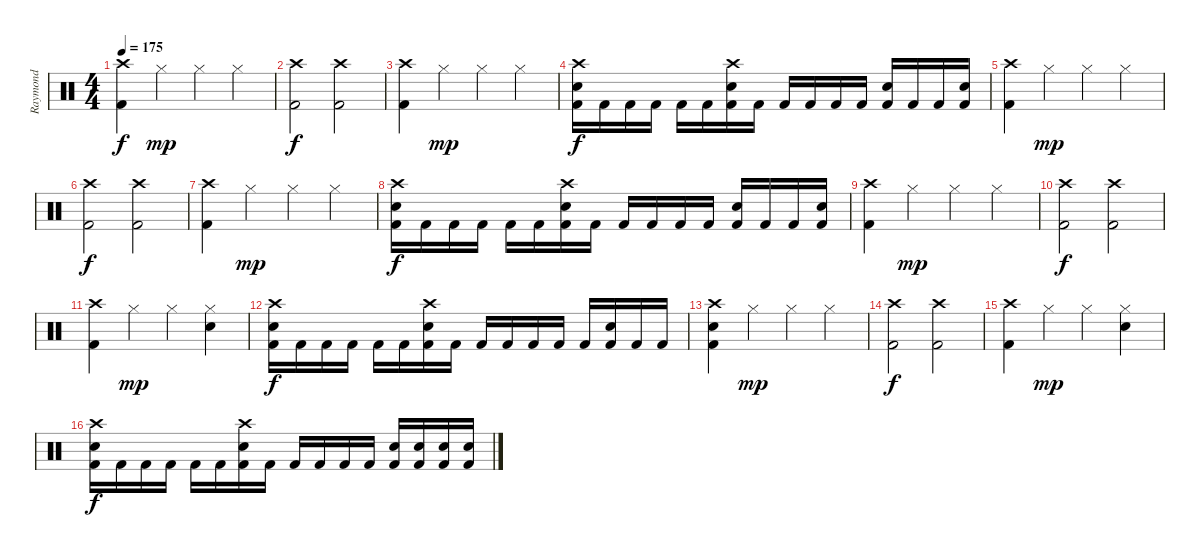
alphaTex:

\track ("Raymond" "Raymond") {instrument percussion}
\staff {score}
\articulation defaults
\ts (4 4)
\tempo 175
\clef neutral
\ks c
("Crash high (hit)" "Kick (hit) 2").4{dy f} "Hi-Hat (closed)".4{dy mp} "Hi-Hat (closed)".4 "Hi-Hat (closed)".4 |
("Crash high (hit)" "Kick (hit) 2").2{dy f} ("Crash high (hit)" "Kick (hit) 2").2 |
("Crash high (hit)" "Kick (hit) 2").4 "Hi-Hat (closed)".4{dy mp} "Hi-Hat (closed)".4 "Hi-Hat (closed)".4 |
("Crash high (hit)" "Electric Snare (hit)" "Kick (hit) 2").16{dy f} "Kick (hit) 2".16 "Kick (hit) 2".16 "Kick (hit) 2".16 "Kick (hit) 2".16 "Kick (hit) 2".16 ("Crash high (hit)" "Electric Snare (hit)" "Kick (hit) 2").16 "Kick (hit) 2".16 "Kick (hit) 2".16 "Kick (hit) 2".16 "Kick (hit) 2".16 "Kick (hit) 2".16 ("Electric Snare (hit)" "Kick (hit) 2").16 "Kick (hit) 2".16 "Kick (hit) 2".16 ("Electric Snare (hit)" "Kick (hit) 2").16 |
("Crash high (hit)" "Kick (hit) 2").4 "Hi-Hat (closed)".4{dy mp} "Hi-Hat (closed)".4 "Hi-Hat (closed)".4 |
("Crash high (hit)" "Kick (hit) 2").2{dy f} ("Crash high (hit)" "Kick (hit) 2").2 |
("Crash high (hit)" "Kick (hit) 2").4 "Hi-Hat (closed)".4{dy mp} "Hi-Hat (closed)".4 "Hi-Hat (closed)".4 |
("Crash high (hit)" "Electric Snare (hit)" "Kick (hit) 2").16{dy f} "Kick (hit) 2".16 "Kick (hit) 2".16 "Kick (hit) 2".16 "Kick (hit) 2".16 "Kick (hit) 2".16 ("Crash high (hit)" "Electric Snare (hit)" "Kick (hit) 2").16 "Kick (hit) 2".16 "Kick (hit) 2".16 "Kick (hit) 2".16 "Kick (hit) 2".16 "Kick (hit) 2".16 ("Electric Snare (hit)" "Kick (hit) 2").16 "Kick (hit) 2".16 "Kick (hit) 2".16 ("Electric Snare (hit)" "Kick (hit) 2").16 |
("Crash high (hit)" "Kick (hit) 2").4 "Hi-Hat (closed)".4{dy mp} "Hi-Hat (closed)".4 "Hi-Hat (closed)".4 |
("Crash high (hit)" "Kick (hit) 2").2{dy f} ("Crash high (hit)" "Kick (hit) 2").2 |
("Crash high (hit)" "Kick (hit) 2").4 "Hi-Hat (closed)".4{dy mp} "Hi-Hat (closed)".4 ("Hi-Hat (closed)" "Electric Snare (hit)").4 |
("Crash high (hit)" "Electric Snare (hit)" "Kick (hit) 2").16{dy f} "Kick (hit) 2".16 "Kick (hit) 2".16 "Kick (hit) 2".16 "Kick (hit) 2".16 "Kick (hit) 2".16 ("Crash high (hit)" "Electric Snare (hit)" "Kick (hit) 2").16 "Kick (hit) 2".16 "Kick (hit) 2".16 "Kick (hit) 2".16 "Kick (hit) 2".16 "Kick (hit) 2".16 "Kick (hit) 2".16 ("Electric Snare (hit)" "Kick (hit) 2").16 "Kick (hit) 2".16 "Kick (hit) 2".16 |
("Crash high (hit)" "Electric Snare (hit)" "Kick (hit) 2").4 "Hi-Hat (closed)".4{dy mp} "Hi-Hat (closed)".4 "Hi-Hat (closed)".4 |
("Crash high (hit)" "Kick (hit) 2").2{dy f} ("Crash high (hit)" "Kick (hit) 2").2 |
("Crash high (hit)" "Kick (hit) 2").4 "Hi-Hat (closed)".4{dy mp} "Hi-Hat (closed)".4 ("Hi-Hat (closed)" "Electric Snare (hit)").4 |
("Crash high (hit)" "Electric Snare (hit)" "Kick (hit) 2").16{dy f} "Kick (hit) 2".16 "Kick (hit) 2".16 "Kick (hit) 2".16 "Kick (hit) 2".16 "Kick (hit) 2".16 ("Crash high (hit)" "Electric Snare (hit)" "Kick (hit) 2").16 "Kick (hit) 2".16 "Kick (hit) 2".16 "Kick (hit) 2".16 "Kick (hit) 2".16 "Kick (hit) 2".16 ("Electric Snare (hit)" "Kick (hit) 2").16 ("Electric Snare (hit)" "Kick (hit) 2").16 ("Electric Snare (hit)" "Kick (hit) 2").16 ("Electric Snare (hit)" "Kick (hit) 2").16
